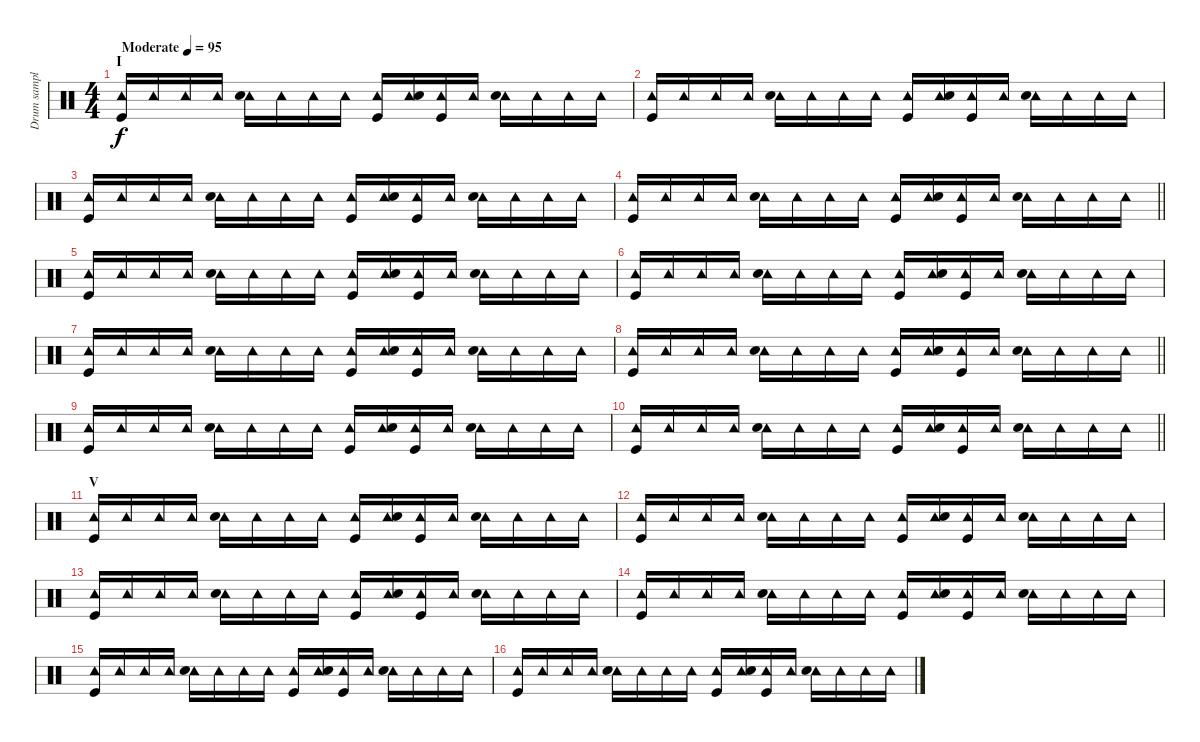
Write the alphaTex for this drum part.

\track ("Drum sample" "Drum sampl") {instrument percussion}
\staff {score}
\articulation defaults
\ts (4 4)
\section ("" "I")
\tempo (95 "Moderate")
\clef neutral
\ks c
("Tambourine (hit)" "Kick (hit)").16{dy f} "Tambourine (hit)".16 "Tambourine (hit)".16 "Tambourine (hit)".16 ("Tambourine (hit)" "Electric Snare (hit)").16 "Tambourine (hit)".16 "Tambourine (hit)".16 "Tambourine (hit)".16 ("Tambourine (hit)" "Kick (hit)").16 ("Tambourine (hit)" "Electric Snare (hit)").16 ("Tambourine (hit)" "Kick (hit)").16 "Tambourine (hit)".16 ("Tambourine (hit)" "Electric Snare (hit)").16 "Tambourine (hit)".16 "Tambourine (hit)".16 "Tambourine (hit)".16 |
("Tambourine (hit)" "Kick (hit)").16 "Tambourine (hit)".16 "Tambourine (hit)".16 "Tambourine (hit)".16 ("Tambourine (hit)" "Electric Snare (hit)").16 "Tambourine (hit)".16 "Tambourine (hit)".16 "Tambourine (hit)".16 ("Tambourine (hit)" "Kick (hit)").16 ("Tambourine (hit)" "Electric Snare (hit)").16 ("Tambourine (hit)" "Kick (hit)").16 "Tambourine (hit)".16 ("Tambourine (hit)" "Electric Snare (hit)").16 "Tambourine (hit)".16 "Tambourine (hit)".16 "Tambourine (hit)".16 |
("Tambourine (hit)" "Kick (hit)").16 "Tambourine (hit)".16 "Tambourine (hit)".16 "Tambourine (hit)".16 ("Tambourine (hit)" "Electric Snare (hit)").16 "Tambourine (hit)".16 "Tambourine (hit)".16 "Tambourine (hit)".16 ("Tambourine (hit)" "Kick (hit)").16 ("Tambourine (hit)" "Electric Snare (hit)").16 ("Tambourine (hit)" "Kick (hit)").16 "Tambourine (hit)".16 ("Tambourine (hit)" "Electric Snare (hit)").16 "Tambourine (hit)".16 "Tambourine (hit)".16 "Tambourine (hit)".16 |
\barLineRight lightlight
("Tambourine (hit)" "Kick (hit)").16 "Tambourine (hit)".16 "Tambourine (hit)".16 "Tambourine (hit)".16 ("Tambourine (hit)" "Electric Snare (hit)").16 "Tambourine (hit)".16 "Tambourine (hit)".16 "Tambourine (hit)".16 ("Tambourine (hit)" "Kick (hit)").16 ("Tambourine (hit)" "Electric Snare (hit)").16 ("Tambourine (hit)" "Kick (hit)").16 "Tambourine (hit)".16 ("Tambourine (hit)" "Electric Snare (hit)").16 "Tambourine (hit)".16 "Tambourine (hit)".16 "Tambourine (hit)".16 |
("Tambourine (hit)" "Kick (hit)").16 "Tambourine (hit)".16 "Tambourine (hit)".16 "Tambourine (hit)".16 ("Tambourine (hit)" "Electric Snare (hit)").16 "Tambourine (hit)".16 "Tambourine (hit)".16 "Tambourine (hit)".16 ("Tambourine (hit)" "Kick (hit)").16 ("Tambourine (hit)" "Electric Snare (hit)").16 ("Tambourine (hit)" "Kick (hit)").16 "Tambourine (hit)".16 ("Tambourine (hit)" "Electric Snare (hit)").16 "Tambourine (hit)".16 "Tambourine (hit)".16 "Tambourine (hit)".16 |
("Tambourine (hit)" "Kick (hit)").16 "Tambourine (hit)".16 "Tambourine (hit)".16 "Tambourine (hit)".16 ("Tambourine (hit)" "Electric Snare (hit)").16 "Tambourine (hit)".16 "Tambourine (hit)".16 "Tambourine (hit)".16 ("Tambourine (hit)" "Kick (hit)").16 ("Tambourine (hit)" "Electric Snare (hit)").16 ("Tambourine (hit)" "Kick (hit)").16 "Tambourine (hit)".16 ("Tambourine (hit)" "Electric Snare (hit)").16 "Tambourine (hit)".16 "Tambourine (hit)".16 "Tambourine (hit)".16 |
("Tambourine (hit)" "Kick (hit)").16 "Tambourine (hit)".16 "Tambourine (hit)".16 "Tambourine (hit)".16 ("Tambourine (hit)" "Electric Snare (hit)").16 "Tambourine (hit)".16 "Tambourine (hit)".16 "Tambourine (hit)".16 ("Tambourine (hit)" "Kick (hit)").16 ("Tambourine (hit)" "Electric Snare (hit)").16 ("Tambourine (hit)" "Kick (hit)").16 "Tambourine (hit)".16 ("Tambourine (hit)" "Electric Snare (hit)").16 "Tambourine (hit)".16 "Tambourine (hit)".16 "Tambourine (hit)".16 |
\barLineRight lightlight
("Tambourine (hit)" "Kick (hit)").16 "Tambourine (hit)".16 "Tambourine (hit)".16 "Tambourine (hit)".16 ("Tambourine (hit)" "Electric Snare (hit)").16 "Tambourine (hit)".16 "Tambourine (hit)".16 "Tambourine (hit)".16 ("Tambourine (hit)" "Kick (hit)").16 ("Tambourine (hit)" "Electric Snare (hit)").16 ("Tambourine (hit)" "Kick (hit)").16 "Tambourine (hit)".16 ("Tambourine (hit)" "Electric Snare (hit)").16 "Tambourine (hit)".16 "Tambourine (hit)".16 "Tambourine (hit)".16 |
("Tambourine (hit)" "Kick (hit)").16 "Tambourine (hit)".16 "Tambourine (hit)".16 "Tambourine (hit)".16 ("Tambourine (hit)" "Electric Snare (hit)").16 "Tambourine (hit)".16 "Tambourine (hit)".16 "Tambourine (hit)".16 ("Tambourine (hit)" "Kick (hit)").16 ("Tambourine (hit)" "Electric Snare (hit)").16 ("Tambourine (hit)" "Kick (hit)").16 "Tambourine (hit)".16 ("Tambourine (hit)" "Electric Snare (hit)").16 "Tambourine (hit)".16 "Tambourine (hit)".16 "Tambourine (hit)".16 |
\barLineRight lightlight
("Tambourine (hit)" "Kick (hit)").16 "Tambourine (hit)".16 "Tambourine (hit)".16 "Tambourine (hit)".16 ("Tambourine (hit)" "Electric Snare (hit)").16 "Tambourine (hit)".16 "Tambourine (hit)".16 "Tambourine (hit)".16 ("Tambourine (hit)" "Kick (hit)").16 ("Tambourine (hit)" "Electric Snare (hit)").16 ("Tambourine (hit)" "Kick (hit)").16 "Tambourine (hit)".16 ("Tambourine (hit)" "Electric Snare (hit)").16 "Tambourine (hit)".16 "Tambourine (hit)".16 "Tambourine (hit)".16 |
\section ("" "V")
("Tambourine (hit)" "Kick (hit)").16 "Tambourine (hit)".16 "Tambourine (hit)".16 "Tambourine (hit)".16 ("Tambourine (hit)" "Electric Snare (hit)").16 "Tambourine (hit)".16 "Tambourine (hit)".16 "Tambourine (hit)".16 ("Tambourine (hit)" "Kick (hit)").16 ("Tambourine (hit)" "Electric Snare (hit)").16 ("Tambourine (hit)" "Kick (hit)").16 "Tambourine (hit)".16 ("Tambourine (hit)" "Electric Snare (hit)").16 "Tambourine (hit)".16 "Tambourine (hit)".16 "Tambourine (hit)".16 |
("Tambourine (hit)" "Kick (hit)").16 "Tambourine (hit)".16 "Tambourine (hit)".16 "Tambourine (hit)".16 ("Tambourine (hit)" "Electric Snare (hit)").16 "Tambourine (hit)".16 "Tambourine (hit)".16 "Tambourine (hit)".16 ("Tambourine (hit)" "Kick (hit)").16 ("Tambourine (hit)" "Electric Snare (hit)").16 ("Tambourine (hit)" "Kick (hit)").16 "Tambourine (hit)".16 ("Tambourine (hit)" "Electric Snare (hit)").16 "Tambourine (hit)".16 "Tambourine (hit)".16 "Tambourine (hit)".16 |
("Tambourine (hit)" "Kick (hit)").16 "Tambourine (hit)".16 "Tambourine (hit)".16 "Tambourine (hit)".16 ("Tambourine (hit)" "Electric Snare (hit)").16 "Tambourine (hit)".16 "Tambourine (hit)".16 "Tambourine (hit)".16 ("Tambourine (hit)" "Kick (hit)").16 ("Tambourine (hit)" "Electric Snare (hit)").16 ("Tambourine (hit)" "Kick (hit)").16 "Tambourine (hit)".16 ("Tambourine (hit)" "Electric Snare (hit)").16 "Tambourine (hit)".16 "Tambourine (hit)".16 "Tambourine (hit)".16 |
("Tambourine (hit)" "Kick (hit)").16 "Tambourine (hit)".16 "Tambourine (hit)".16 "Tambourine (hit)".16 ("Tambourine (hit)" "Electric Snare (hit)").16 "Tambourine (hit)".16 "Tambourine (hit)".16 "Tambourine (hit)".16 ("Tambourine (hit)" "Kick (hit)").16 ("Tambourine (hit)" "Electric Snare (hit)").16 ("Tambourine (hit)" "Kick (hit)").16 "Tambourine (hit)".16 ("Tambourine (hit)" "Electric Snare (hit)").16 "Tambourine (hit)".16 "Tambourine (hit)".16 "Tambourine (hit)".16 |
("Tambourine (hit)" "Kick (hit)").16 "Tambourine (hit)".16 "Tambourine (hit)".16 "Tambourine (hit)".16 ("Tambourine (hit)" "Electric Snare (hit)").16 "Tambourine (hit)".16 "Tambourine (hit)".16 "Tambourine (hit)".16 ("Tambourine (hit)" "Kick (hit)").16 ("Tambourine (hit)" "Electric Snare (hit)").16 ("Tambourine (hit)" "Kick (hit)").16 "Tambourine (hit)".16 ("Tambourine (hit)" "Electric Snare (hit)").16 "Tambourine (hit)".16 "Tambourine (hit)".16 "Tambourine (hit)".16 |
("Tambourine (hit)" "Kick (hit)").16 "Tambourine (hit)".16 "Tambourine (hit)".16 "Tambourine (hit)".16 ("Tambourine (hit)" "Electric Snare (hit)").16 "Tambourine (hit)".16 "Tambourine (hit)".16 "Tambourine (hit)".16 ("Tambourine (hit)" "Kick (hit)").16 ("Tambourine (hit)" "Electric Snare (hit)").16 ("Tambourine (hit)" "Kick (hit)").16 "Tambourine (hit)".16 ("Tambourine (hit)" "Electric Snare (hit)").16 "Tambourine (hit)".16 "Tambourine (hit)".16 "Tambourine (hit)".16
